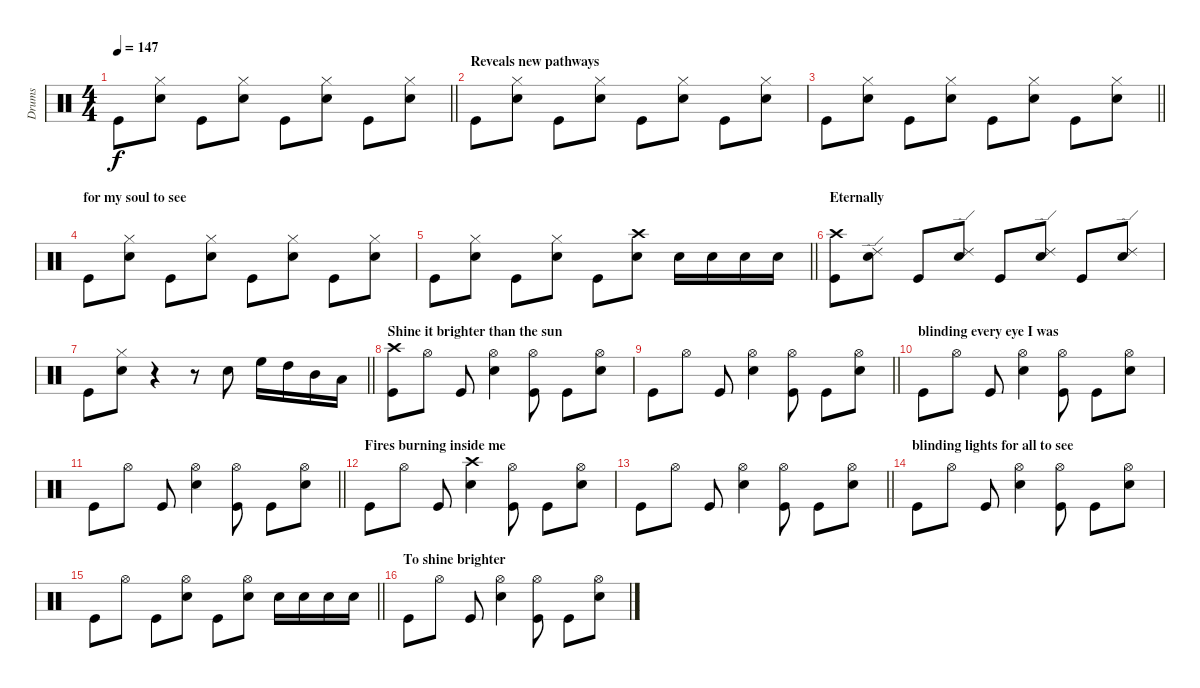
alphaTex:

\track ("Drums" "Drums") {instrument percussion}
\staff {score}
\articulation defaults
\ts (4 4)
\tempo 147
\clef neutral
\barLineRight lightlight
\ks c "Kick (hit)".8{dy f}
("Hi-Hat (closed)" "Snare (hit) 2").8 "Kick (hit)".8 ("Hi-Hat (closed)" "Snare (hit) 2").8 "Kick (hit)".8 ("Hi-Hat (closed)" "Snare (hit) 2").8 "Kick (hit)".8 ("Hi-Hat (closed)" "Snare (hit) 2").8 |
\section ("" "Reveals new pathways ")
"Kick (hit)".8 ("Hi-Hat (closed)" "Snare (hit) 2").8 "Kick (hit)".8 ("Hi-Hat (closed)" "Snare (hit) 2").8 "Kick (hit)".8 ("Hi-Hat (closed)" "Snare (hit) 2").8 "Kick (hit)".8 ("Hi-Hat (closed)" "Snare (hit) 2").8 |
\barLineRight lightlight "Kick (hit)".8
("Hi-Hat (closed)" "Snare (hit) 2").8 "Kick (hit)".8 ("Hi-Hat (closed)" "Snare (hit) 2").8 "Kick (hit)".8 ("Hi-Hat (closed)" "Snare (hit) 2").8 "Kick (hit)".8 ("Hi-Hat (closed)" "Snare (hit) 2").8 |
\section ("" "for my soul to see ")
"Kick (hit)".8 ("Hi-Hat (closed)" "Snare (hit) 2").8 "Kick (hit)".8 ("Hi-Hat (closed)" "Snare (hit) 2").8 "Kick (hit)".8 ("Hi-Hat (closed)" "Snare (hit) 2").8 "Kick (hit)".8 ("Hi-Hat (closed)" "Snare (hit) 2").8 |
\barLineRight lightlight "Kick (hit)".8
("Hi-Hat (closed)" "Snare (hit) 2").8 "Kick (hit)".8 ("Hi-Hat (closed)" "Snare (hit) 2").8 "Kick (hit)".8 ("Crash high (hit)" "Snare (hit) 2").8 "Snare (hit) 2".16 "Snare (hit) 2".16 "Snare (hit) 2".16 "Snare (hit) 2".16 |
\section ("" "Eternally ")
("Crash high (hit)" "Kick (hit)").8 ("Ride (edge) 2" "Snare (hit) 2").8 "Kick (hit)".8 ("Ride (edge) 2" "Snare (hit) 2").8 "Kick (hit)".8 ("Ride (edge) 2" "Snare (hit) 2").8 "Kick (hit)".8 ("Ride (edge) 2" "Snare (hit) 2").8 |
\barLineRight lightlight "Kick (hit)".8
("Hi-Hat (closed)" "Snare (hit) 2").8 r.4 r.8 "Snare (hit) 2".8 "High Floor Tom (hit)".16 "High Tom (hit)".16 "Mid Tom (hit)".16 "Low Tom (hit)".16 |
\section ("" "Shine it brighter than the sun")
("Crash high (hit)" "Kick (hit)").8 "Hi-Hat (open)".8 "Kick (hit)".8 ("Hi-Hat (open)" "Snare (hit) 2").4 ("Hi-Hat (open)" "Kick (hit)").8 "Kick (hit)".8 ("Hi-Hat (open)" "Snare (hit) 2").8 |
\barLineRight lightlight "Kick (hit)".8 "Hi-Hat (open)".8 "Kick (hit)".8
("Hi-Hat (open)" "Snare (hit) 2").4 ("Hi-Hat (open)" "Kick (hit)").8 "Kick (hit)".8 ("Hi-Hat (open)" "Snare (hit) 2").8 |
\section ("" "blinding every eye I was")
"Kick (hit)".8 "Hi-Hat (open)".8 "Kick (hit)".8 ("Hi-Hat (open)" "Snare (hit) 2").4 ("Hi-Hat (open)" "Kick (hit)").8 "Kick (hit)".8 ("Hi-Hat (open)" "Snare (hit) 2").8 |
\barLineRight lightlight "Kick (hit)".8 "Hi-Hat (open)".8 "Kick (hit)".8
("Hi-Hat (open)" "Snare (hit) 2").4 ("Hi-Hat (open)" "Kick (hit)").8 "Kick (hit)".8 ("Hi-Hat (open)" "Snare (hit) 2").8 |
\section ("" "Fires burning inside me ")
"Kick (hit)".8 "Hi-Hat (open)".8 "Kick (hit)".8 ("Crash high (hit)" "Snare (hit) 2").4 ("Hi-Hat (open)" "Kick (hit)").8 "Kick (hit)".8 ("Hi-Hat (open)" "Snare (hit) 2").8 |
\barLineRight lightlight "Kick (hit)".8 "Hi-Hat (open)".8 "Kick (hit)".8
("Hi-Hat (open)" "Snare (hit) 2").4 ("Hi-Hat (open)" "Kick (hit)").8 "Kick (hit)".8 ("Hi-Hat (open)" "Snare (hit) 2").8 |
\section ("" "blinding lights for all to see")
"Kick (hit)".8 "Hi-Hat (open)".8 "Kick (hit)".8 ("Hi-Hat (open)" "Snare (hit) 2").4 ("Hi-Hat (open)" "Kick (hit)").8 "Kick (hit)".8 ("Hi-Hat (open)" "Snare (hit) 2").8 |
\barLineRight lightlight "Kick (hit)".8 "Hi-Hat (open)".8 "Kick (hit)".8
("Hi-Hat (open)" "Snare (hit) 2").8 "Kick (hit)".8 ("Hi-Hat (open)" "Snare (hit) 2").8 "Snare (hit) 2".16 "Snare (hit) 2".16 "Snare (hit) 2".16 "Snare (hit) 2".16 |
\section ("" "To shine brighter ")
"Kick (hit)".8 "Hi-Hat (open)".8 "Kick (hit)".8 ("Hi-Hat (open)" "Snare (hit) 2").4 ("Hi-Hat (open)" "Kick (hit)").8 "Kick (hit)".8 ("Hi-Hat (open)" "Snare (hit) 2").8
